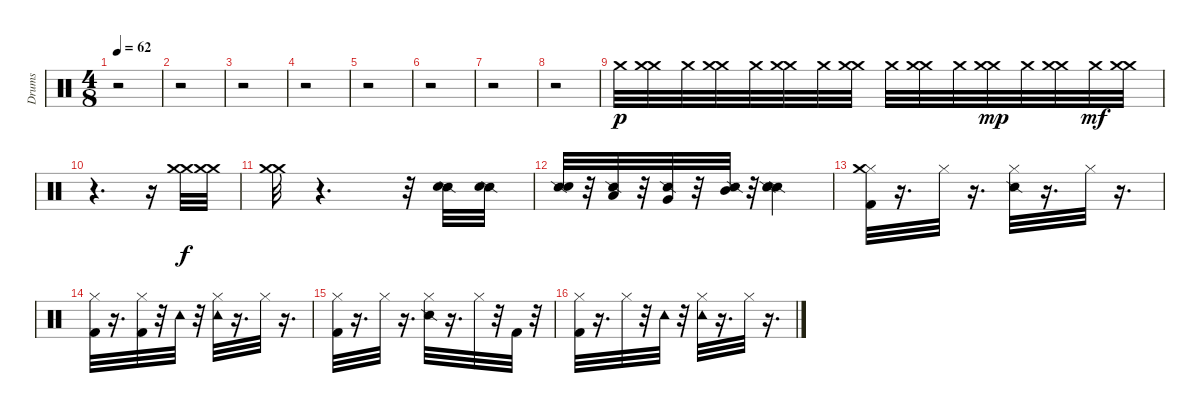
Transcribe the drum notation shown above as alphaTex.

\track ("Drums" "Drums") {instrument percussion}
\staff {score}
\articulation defaults
\ts (4 8)
\tempo 62
\clef neutral
\ks c
r.2{dy mf} |
r.2 |
r.2 |
r.2 |
r.2 |
r.2 |
r.2 |
r.2 |
"Crash medium (hit)".32{dy p} ("Crash medium (hit)" "Crash medium (hit)").32 "Crash medium (hit)".32 ("Crash medium (hit)" "Crash medium (hit)").32 "Crash medium (hit)".32 ("Crash medium (hit)" "Crash medium (hit)").32 "Crash medium (hit)".32 ("Crash medium (hit)" "Crash medium (hit)").32 "Crash medium (hit)".32 ("Crash medium (hit)" "Crash medium (hit)").32 "Crash medium (hit)".32 ("Crash medium (hit)" "Crash medium (hit)").32{dy mp} "Crash medium (hit)".32 ("Crash medium (hit)" "Crash medium (hit)").32 "Crash medium (hit)".32{dy mf} ("Crash medium (hit)" "Crash medium (hit)").32 |
r.4{d} r.16 ("Crash medium (hit)" "Crash medium (hit)").32{dy f} ("Crash medium (hit)" "Crash medium (hit)").32 |
("Crash medium (hit)" "Crash medium (hit)").32 r.4{d} r.32 ("Snare (side stick) 2" "Snare (hit) 2").32 ("Snare (side stick) 2" "Snare (hit) 2").32 |
("Snare (side stick) 2" "Snare (hit) 2").32 r.32 ("Low Tom (hit)" "Snare (side stick) 2").32 r.32 ("Very Low Tom (hit)" "Snare (side stick) 2").32 r.32 ("Mid Tom (hit)" "Snare (side stick) 2").32 r.32 ("Snare (side stick) 2" "Snare (side stick) 2" "Snare (hit) 2").4 |
("Kick (hit) 2" "Hi-Hat (closed)" "Crash medium (hit)").32 r.16{d} "Hi-Hat (closed)".32 r.16{d} ("Snare (side stick) 2" "Hi-Hat (closed)").32 r.16{d} "Hi-Hat (closed)".32 r.16{d} |
("Kick (hit) 2" "Hi-Hat (closed)").32 r.16{d} ("Kick (hit) 2" "Hi-Hat (closed)").32 r.32 "Tambourine (hit)".32 r.32 ("Hi-Hat (closed)" "Tambourine (hit)").32 r.16{d} "Hi-Hat (closed)".32 r.16{d} |
("Kick (hit) 2" "Hi-Hat (closed)").32 r.16{d} "Hi-Hat (closed)".32 r.16{d} ("Snare (side stick) 2" "Hi-Hat (closed)").32 r.16{d} "Hi-Hat (closed)".32 r.32 "Kick (hit) 2".32 r.32 |
("Kick (hit) 2" "Hi-Hat (closed)").32 r.16{d} "Hi-Hat (closed)".32 r.32 "Tambourine (hit)".32 r.32 ("Hi-Hat (closed)" "Tambourine (hit)").32 r.16{d} "Hi-Hat (closed)".32 r.16{d}
